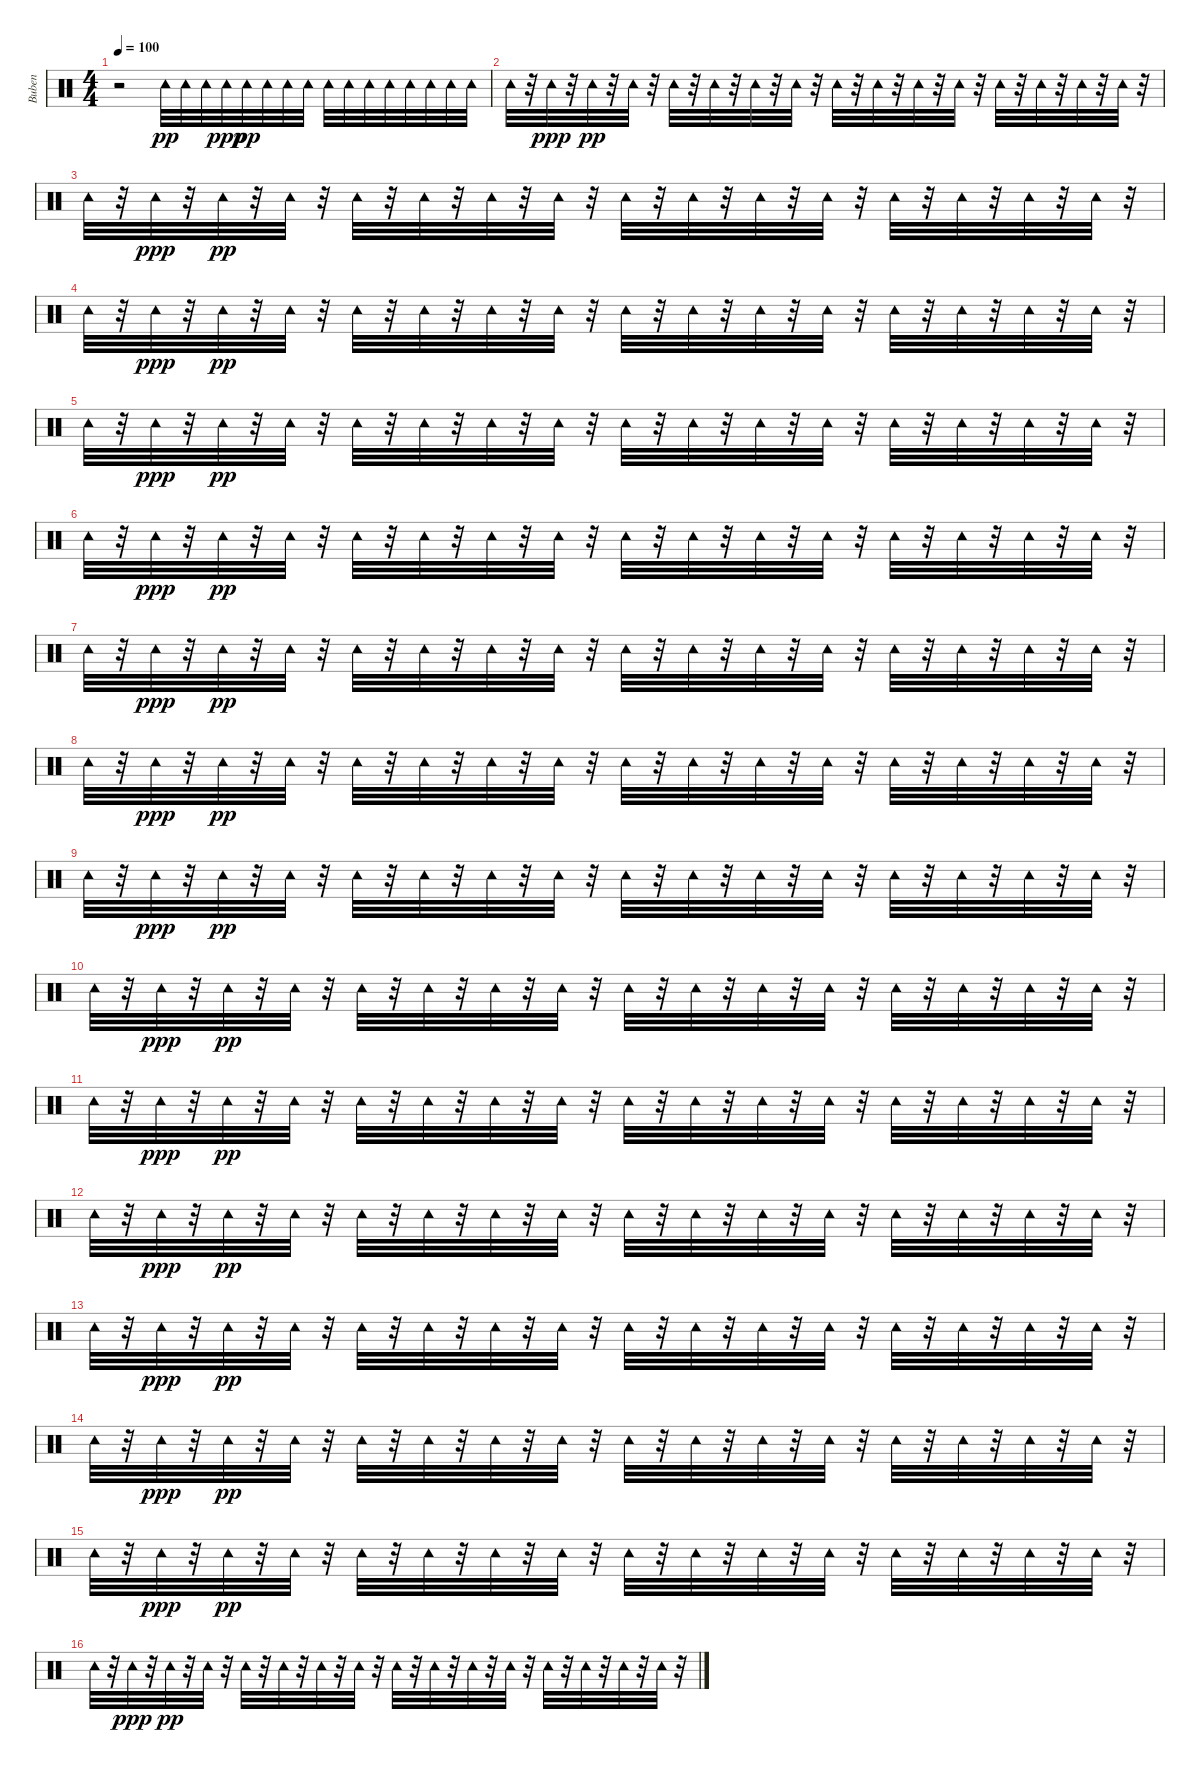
\track ("Buben" "Buben") {instrument percussion}
\staff {score}
\articulation defaults
\ts (4 4)
\tempo 100
\clef neutral
\ks c
r.2{dy pp} "Tambourine (hit)".32 "Tambourine (hit)".32 "Tambourine (hit)".32 "Tambourine (hit)".32{dy ppp} "Tambourine (hit)".32{dy pp} "Tambourine (hit)".32 "Tambourine (hit)".32 "Tambourine (hit)".32 "Tambourine (hit)".32 "Tambourine (hit)".32 "Tambourine (hit)".32 "Tambourine (hit)".32 "Tambourine (hit)".32 "Tambourine (hit)".32 "Tambourine (hit)".32 "Tambourine (hit)".32 |
"Tambourine (hit)".32 r.32 "Tambourine (hit)".32{dy ppp} r.32 "Tambourine (hit)".32{dy pp} r.32 "Tambourine (hit)".32 r.32 "Tambourine (hit)".32 r.32 "Tambourine (hit)".32 r.32 "Tambourine (hit)".32 r.32 "Tambourine (hit)".32 r.32 "Tambourine (hit)".32 r.32 "Tambourine (hit)".32 r.32 "Tambourine (hit)".32 r.32 "Tambourine (hit)".32 r.32 "Tambourine (hit)".32 r.32 "Tambourine (hit)".32 r.32 "Tambourine (hit)".32 r.32 "Tambourine (hit)".32 r.32 |
"Tambourine (hit)".32 r.32 "Tambourine (hit)".32{dy ppp} r.32 "Tambourine (hit)".32{dy pp} r.32 "Tambourine (hit)".32 r.32 "Tambourine (hit)".32 r.32 "Tambourine (hit)".32 r.32 "Tambourine (hit)".32 r.32 "Tambourine (hit)".32 r.32 "Tambourine (hit)".32 r.32 "Tambourine (hit)".32 r.32 "Tambourine (hit)".32 r.32 "Tambourine (hit)".32 r.32 "Tambourine (hit)".32 r.32 "Tambourine (hit)".32 r.32 "Tambourine (hit)".32 r.32 "Tambourine (hit)".32 r.32 |
"Tambourine (hit)".32 r.32 "Tambourine (hit)".32{dy ppp} r.32 "Tambourine (hit)".32{dy pp} r.32 "Tambourine (hit)".32 r.32 "Tambourine (hit)".32 r.32 "Tambourine (hit)".32 r.32 "Tambourine (hit)".32 r.32 "Tambourine (hit)".32 r.32 "Tambourine (hit)".32 r.32 "Tambourine (hit)".32 r.32 "Tambourine (hit)".32 r.32 "Tambourine (hit)".32 r.32 "Tambourine (hit)".32 r.32 "Tambourine (hit)".32 r.32 "Tambourine (hit)".32 r.32 "Tambourine (hit)".32 r.32 |
"Tambourine (hit)".32 r.32 "Tambourine (hit)".32{dy ppp} r.32 "Tambourine (hit)".32{dy pp} r.32 "Tambourine (hit)".32 r.32 "Tambourine (hit)".32 r.32 "Tambourine (hit)".32 r.32 "Tambourine (hit)".32 r.32 "Tambourine (hit)".32 r.32 "Tambourine (hit)".32 r.32 "Tambourine (hit)".32 r.32 "Tambourine (hit)".32 r.32 "Tambourine (hit)".32 r.32 "Tambourine (hit)".32 r.32 "Tambourine (hit)".32 r.32 "Tambourine (hit)".32 r.32 "Tambourine (hit)".32 r.32 |
"Tambourine (hit)".32 r.32 "Tambourine (hit)".32{dy ppp} r.32 "Tambourine (hit)".32{dy pp} r.32 "Tambourine (hit)".32 r.32 "Tambourine (hit)".32 r.32 "Tambourine (hit)".32 r.32 "Tambourine (hit)".32 r.32 "Tambourine (hit)".32 r.32 "Tambourine (hit)".32 r.32 "Tambourine (hit)".32 r.32 "Tambourine (hit)".32 r.32 "Tambourine (hit)".32 r.32 "Tambourine (hit)".32 r.32 "Tambourine (hit)".32 r.32 "Tambourine (hit)".32 r.32 "Tambourine (hit)".32 r.32 |
"Tambourine (hit)".32 r.32 "Tambourine (hit)".32{dy ppp} r.32 "Tambourine (hit)".32{dy pp} r.32 "Tambourine (hit)".32 r.32 "Tambourine (hit)".32 r.32 "Tambourine (hit)".32 r.32 "Tambourine (hit)".32 r.32 "Tambourine (hit)".32 r.32 "Tambourine (hit)".32 r.32 "Tambourine (hit)".32 r.32 "Tambourine (hit)".32 r.32 "Tambourine (hit)".32 r.32 "Tambourine (hit)".32 r.32 "Tambourine (hit)".32 r.32 "Tambourine (hit)".32 r.32 "Tambourine (hit)".32 r.32 |
"Tambourine (hit)".32 r.32 "Tambourine (hit)".32{dy ppp} r.32 "Tambourine (hit)".32{dy pp} r.32 "Tambourine (hit)".32 r.32 "Tambourine (hit)".32 r.32 "Tambourine (hit)".32 r.32 "Tambourine (hit)".32 r.32 "Tambourine (hit)".32 r.32 "Tambourine (hit)".32 r.32 "Tambourine (hit)".32 r.32 "Tambourine (hit)".32 r.32 "Tambourine (hit)".32 r.32 "Tambourine (hit)".32 r.32 "Tambourine (hit)".32 r.32 "Tambourine (hit)".32 r.32 "Tambourine (hit)".32 r.32 |
"Tambourine (hit)".32 r.32 "Tambourine (hit)".32{dy ppp} r.32 "Tambourine (hit)".32{dy pp} r.32 "Tambourine (hit)".32 r.32 "Tambourine (hit)".32 r.32 "Tambourine (hit)".32 r.32 "Tambourine (hit)".32 r.32 "Tambourine (hit)".32 r.32 "Tambourine (hit)".32 r.32 "Tambourine (hit)".32 r.32 "Tambourine (hit)".32 r.32 "Tambourine (hit)".32 r.32 "Tambourine (hit)".32 r.32 "Tambourine (hit)".32 r.32 "Tambourine (hit)".32 r.32 "Tambourine (hit)".32 r.32 |
"Tambourine (hit)".32 r.32 "Tambourine (hit)".32{dy ppp} r.32 "Tambourine (hit)".32{dy pp} r.32 "Tambourine (hit)".32 r.32 "Tambourine (hit)".32 r.32 "Tambourine (hit)".32 r.32 "Tambourine (hit)".32 r.32 "Tambourine (hit)".32 r.32 "Tambourine (hit)".32 r.32 "Tambourine (hit)".32 r.32 "Tambourine (hit)".32 r.32 "Tambourine (hit)".32 r.32 "Tambourine (hit)".32 r.32 "Tambourine (hit)".32 r.32 "Tambourine (hit)".32 r.32 "Tambourine (hit)".32 r.32 |
"Tambourine (hit)".32 r.32 "Tambourine (hit)".32{dy ppp} r.32 "Tambourine (hit)".32{dy pp} r.32 "Tambourine (hit)".32 r.32 "Tambourine (hit)".32 r.32 "Tambourine (hit)".32 r.32 "Tambourine (hit)".32 r.32 "Tambourine (hit)".32 r.32 "Tambourine (hit)".32 r.32 "Tambourine (hit)".32 r.32 "Tambourine (hit)".32 r.32 "Tambourine (hit)".32 r.32 "Tambourine (hit)".32 r.32 "Tambourine (hit)".32 r.32 "Tambourine (hit)".32 r.32 "Tambourine (hit)".32 r.32 |
"Tambourine (hit)".32 r.32 "Tambourine (hit)".32{dy ppp} r.32 "Tambourine (hit)".32{dy pp} r.32 "Tambourine (hit)".32 r.32 "Tambourine (hit)".32 r.32 "Tambourine (hit)".32 r.32 "Tambourine (hit)".32 r.32 "Tambourine (hit)".32 r.32 "Tambourine (hit)".32 r.32 "Tambourine (hit)".32 r.32 "Tambourine (hit)".32 r.32 "Tambourine (hit)".32 r.32 "Tambourine (hit)".32 r.32 "Tambourine (hit)".32 r.32 "Tambourine (hit)".32 r.32 "Tambourine (hit)".32 r.32 |
"Tambourine (hit)".32 r.32 "Tambourine (hit)".32{dy ppp} r.32 "Tambourine (hit)".32{dy pp} r.32 "Tambourine (hit)".32 r.32 "Tambourine (hit)".32 r.32 "Tambourine (hit)".32 r.32 "Tambourine (hit)".32 r.32 "Tambourine (hit)".32 r.32 "Tambourine (hit)".32 r.32 "Tambourine (hit)".32 r.32 "Tambourine (hit)".32 r.32 "Tambourine (hit)".32 r.32 "Tambourine (hit)".32 r.32 "Tambourine (hit)".32 r.32 "Tambourine (hit)".32 r.32 "Tambourine (hit)".32 r.32 |
"Tambourine (hit)".32 r.32 "Tambourine (hit)".32{dy ppp} r.32 "Tambourine (hit)".32{dy pp} r.32 "Tambourine (hit)".32 r.32 "Tambourine (hit)".32 r.32 "Tambourine (hit)".32 r.32 "Tambourine (hit)".32 r.32 "Tambourine (hit)".32 r.32 "Tambourine (hit)".32 r.32 "Tambourine (hit)".32 r.32 "Tambourine (hit)".32 r.32 "Tambourine (hit)".32 r.32 "Tambourine (hit)".32 r.32 "Tambourine (hit)".32 r.32 "Tambourine (hit)".32 r.32 "Tambourine (hit)".32 r.32 |
"Tambourine (hit)".32 r.32 "Tambourine (hit)".32{dy ppp} r.32 "Tambourine (hit)".32{dy pp} r.32 "Tambourine (hit)".32 r.32 "Tambourine (hit)".32 r.32 "Tambourine (hit)".32 r.32 "Tambourine (hit)".32 r.32 "Tambourine (hit)".32 r.32 "Tambourine (hit)".32 r.32 "Tambourine (hit)".32 r.32 "Tambourine (hit)".32 r.32 "Tambourine (hit)".32 r.32 "Tambourine (hit)".32 r.32 "Tambourine (hit)".32 r.32 "Tambourine (hit)".32 r.32 "Tambourine (hit)".32 r.32 |
"Tambourine (hit)".32 r.32 "Tambourine (hit)".32{dy ppp} r.32 "Tambourine (hit)".32{dy pp} r.32 "Tambourine (hit)".32 r.32 "Tambourine (hit)".32 r.32 "Tambourine (hit)".32 r.32 "Tambourine (hit)".32 r.32 "Tambourine (hit)".32 r.32 "Tambourine (hit)".32 r.32 "Tambourine (hit)".32 r.32 "Tambourine (hit)".32 r.32 "Tambourine (hit)".32 r.32 "Tambourine (hit)".32 r.32 "Tambourine (hit)".32 r.32 "Tambourine (hit)".32 r.32 "Tambourine (hit)".32 r.32
